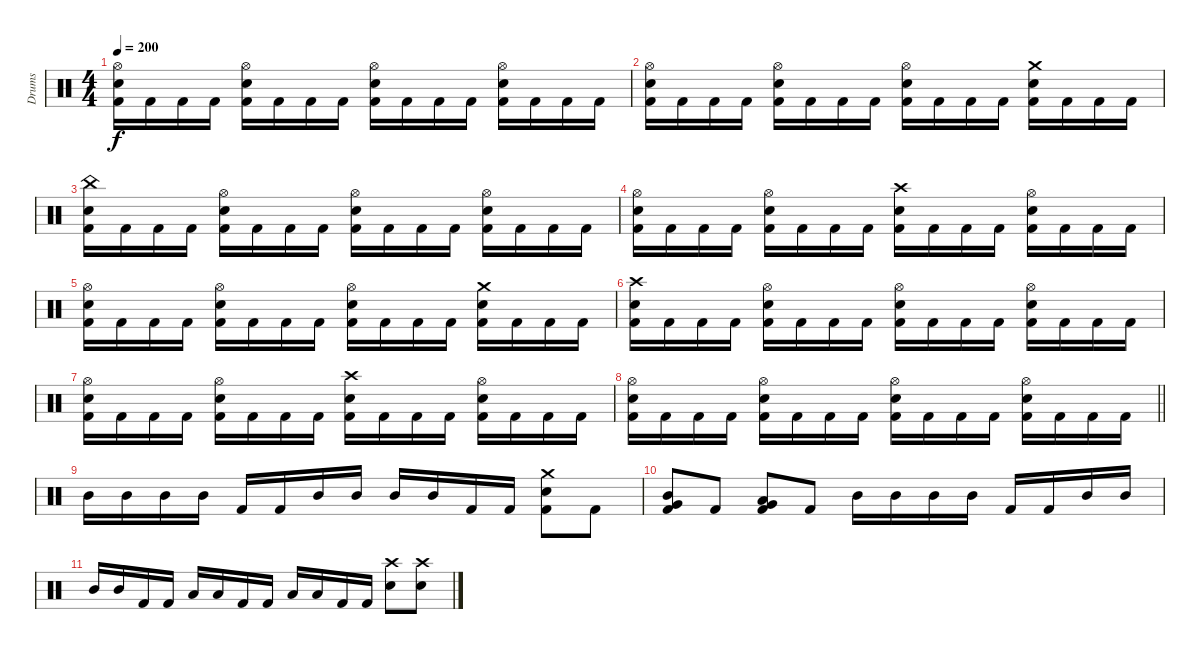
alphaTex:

\track ("Drums" "Drums") {instrument percussion}
\staff {score}
\articulation defaults
\ts (4 4)
\tempo 200
\clef neutral
\ks c
("Hi-Hat (open)" "Snare (hit) 2" "Kick (hit) 2").16{dy f} "Kick (hit) 2".16 "Kick (hit) 2".16 "Kick (hit) 2".16 ("Hi-Hat (open)" "Snare (hit) 2" "Kick (hit) 2").16 "Kick (hit) 2".16 "Kick (hit) 2".16 "Kick (hit) 2".16 ("Hi-Hat (open)" "Snare (hit) 2" "Kick (hit) 2").16 "Kick (hit) 2".16 "Kick (hit) 2".16 "Kick (hit) 2".16 ("Hi-Hat (open)" "Snare (hit) 2" "Kick (hit) 2").16 "Kick (hit) 2".16 "Kick (hit) 2".16 "Kick (hit) 2".16 |
("Hi-Hat (open)" "Snare (hit) 2" "Kick (hit) 2").16 "Kick (hit) 2".16 "Kick (hit) 2".16 "Kick (hit) 2".16 ("Hi-Hat (open)" "Snare (hit) 2" "Kick (hit) 2").16 "Kick (hit) 2".16 "Kick (hit) 2".16 "Kick (hit) 2".16 ("Hi-Hat (open)" "Snare (hit) 2" "Kick (hit) 2").16 "Kick (hit) 2".16 "Kick (hit) 2".16 "Kick (hit) 2".16 ("Crash medium (hit)" "Snare (hit) 2" "Kick (hit) 2").16 "Kick (hit) 2".16 "Kick (hit) 2".16 "Kick (hit) 2".16 |
("China (hit)" "Snare (hit) 2" "Kick (hit) 2").16 "Kick (hit) 2".16 "Kick (hit) 2".16 "Kick (hit) 2".16 ("Hi-Hat (open)" "Snare (hit) 2" "Kick (hit) 2").16 "Kick (hit) 2".16 "Kick (hit) 2".16 "Kick (hit) 2".16 ("Hi-Hat (open)" "Snare (hit) 2" "Kick (hit) 2").16 "Kick (hit) 2".16 "Kick (hit) 2".16 "Kick (hit) 2".16 ("Hi-Hat (open)" "Snare (hit) 2" "Kick (hit) 2").16 "Kick (hit) 2".16 "Kick (hit) 2".16 "Kick (hit) 2".16 |
("Hi-Hat (open)" "Snare (hit) 2" "Kick (hit) 2").16 "Kick (hit) 2".16 "Kick (hit) 2".16 "Kick (hit) 2".16 ("Hi-Hat (open)" "Snare (hit) 2" "Kick (hit) 2").16 "Kick (hit) 2".16 "Kick (hit) 2".16 "Kick (hit) 2".16 ("Crash high (hit)" "Snare (hit) 2" "Kick (hit) 2").16 "Kick (hit) 2".16 "Kick (hit) 2".16 "Kick (hit) 2".16 ("Hi-Hat (open)" "Snare (hit) 2" "Kick (hit) 2").16 "Kick (hit) 2".16 "Kick (hit) 2".16 "Kick (hit) 2".16 |
("Hi-Hat (open)" "Snare (hit) 2" "Kick (hit) 2").16 "Kick (hit) 2".16 "Kick (hit) 2".16 "Kick (hit) 2".16 ("Hi-Hat (open)" "Snare (hit) 2" "Kick (hit) 2").16 "Kick (hit) 2".16 "Kick (hit) 2".16 "Kick (hit) 2".16 ("Hi-Hat (open)" "Snare (hit) 2" "Kick (hit) 2").16 "Kick (hit) 2".16 "Kick (hit) 2".16 "Kick (hit) 2".16 ("Crash medium (hit)" "Snare (hit) 2" "Kick (hit) 2").16 "Kick (hit) 2".16 "Kick (hit) 2".16 "Kick (hit) 2".16 |
("Crash high (hit)" "Snare (hit) 2" "Kick (hit) 2").16 "Kick (hit) 2".16 "Kick (hit) 2".16 "Kick (hit) 2".16 ("Hi-Hat (open)" "Snare (hit) 2" "Kick (hit) 2").16 "Kick (hit) 2".16 "Kick (hit) 2".16 "Kick (hit) 2".16 ("Hi-Hat (open)" "Snare (hit) 2" "Kick (hit) 2").16 "Kick (hit) 2".16 "Kick (hit) 2".16 "Kick (hit) 2".16 ("Hi-Hat (open)" "Snare (hit) 2" "Kick (hit) 2").16 "Kick (hit) 2".16 "Kick (hit) 2".16 "Kick (hit) 2".16 |
("Hi-Hat (open)" "Snare (hit) 2" "Kick (hit) 2").16 "Kick (hit) 2".16 "Kick (hit) 2".16 "Kick (hit) 2".16 ("Hi-Hat (open)" "Snare (hit) 2" "Kick (hit) 2").16 "Kick (hit) 2".16 "Kick (hit) 2".16 "Kick (hit) 2".16 ("Crash high (hit)" "Snare (hit) 2" "Kick (hit) 2").16 "Kick (hit) 2".16 "Kick (hit) 2".16 "Kick (hit) 2".16 ("Hi-Hat (open)" "Snare (hit) 2" "Kick (hit) 2").16 "Kick (hit) 2".16 "Kick (hit) 2".16 "Kick (hit) 2".16 |
\barLineRight lightlight
("Hi-Hat (open)" "Snare (hit) 2" "Kick (hit) 2").16 "Kick (hit) 2".16 "Kick (hit) 2".16 "Kick (hit) 2".16 ("Hi-Hat (open)" "Snare (hit) 2" "Kick (hit) 2").16 "Kick (hit) 2".16 "Kick (hit) 2".16 "Kick (hit) 2".16 ("Hi-Hat (open)" "Snare (hit) 2" "Kick (hit) 2").16 "Kick (hit) 2".16 "Kick (hit) 2".16 "Kick (hit) 2".16 ("Hi-Hat (open)" "Snare (hit) 2" "Kick (hit) 2").16 "Kick (hit) 2".16 "Kick (hit) 2".16 "Kick (hit) 2".16 |
"Mid Tom (hit)".16 "Mid Tom (hit)".16 "Mid Tom (hit)".16 "Mid Tom (hit)".16 "Kick (hit) 2".16 "Kick (hit) 2".16 "Mid Tom (hit)".16 "Mid Tom (hit)".16 "Mid Tom (hit)".16 "Mid Tom (hit)".16 "Kick (hit) 2".16 "Kick (hit) 2".16 ("Crash medium (hit)" "Snare (hit) 2" "Kick (hit) 2").8 "Kick (hit) 2".8 |
("Mid Tom (hit)" "Very Low Tom (hit)" "Kick (hit) 2").8 "Kick (hit) 2".8 ("Low Tom (hit)" "Very Low Tom (hit)" "Kick (hit) 2").8 "Kick (hit) 2".8 "Mid Tom (hit)".16 "Mid Tom (hit)".16 "Mid Tom (hit)".16 "Mid Tom (hit)".16 "Kick (hit) 2".16 "Kick (hit) 2".16 "Mid Tom (hit)".16 "Mid Tom (hit)".16 |
"Mid Tom (hit)".16 "Mid Tom (hit)".16 "Kick (hit) 2".16 "Kick (hit) 2".16 "Low Tom (hit)".16 "Low Tom (hit)".16 "Kick (hit) 2".16 "Kick (hit) 2".16 "Low Tom (hit)".16 "Low Tom (hit)".16 "Kick (hit) 2".16 "Kick (hit) 2".16 ("Crash high (hit)" "Snare (hit) 2").8 ("Crash high (hit)" "Snare (hit) 2").8
